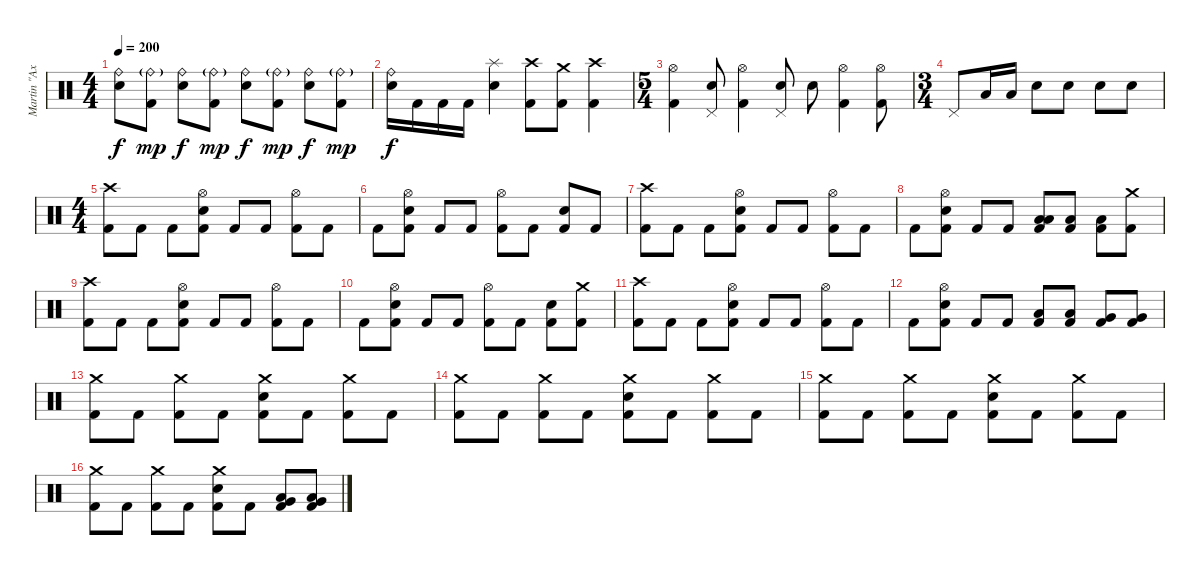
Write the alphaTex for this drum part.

\track ("Martin \"Axe\" Axenrot" "Martin \"Ax") {instrument percussion}
\staff {score}
\articulation defaults
\ts (4 4)
\tempo 200
\clef neutral
\ks c
("Ride (bell)" "Electric Snare (hit)").8{dy f} ("Ride (bell)"{g} "Kick (hit) 2").8{dy mp} ("Ride (bell)" "Electric Snare (hit)").8{dy f} ("Ride (bell)"{g} "Kick (hit) 2").8{dy mp} ("Ride (bell)" "Electric Snare (hit)").8{dy f} ("Ride (bell)"{g} "Kick (hit) 2").8{dy mp} ("Ride (bell)" "Electric Snare (hit)").8{dy f} ("Ride (bell)"{g} "Kick (hit) 2").8{dy mp} |
("Ride (bell)" "Electric Snare (hit)").16{dy f} "Kick (hit) 2".16 "Kick (hit) 2".16 "Kick (hit) 2".16 ("Splash (hit)" "Electric Snare (hit)").4 ("Crash high (hit)" "Kick (hit) 2").8 ("Crash medium (hit)" "Kick (hit) 2").8 ("Crash high (hit)" "Kick (hit) 2").4 |
\ts (5 4)
("Hi-Hat (open)" "Kick (hit) 2").4 ("Pedal Hi-Hat (hit)" "Electric Snare (hit)").8 ("Hi-Hat (open)" "Kick (hit) 2").4 ("Pedal Hi-Hat (hit)" "Electric Snare (hit)").8 "Electric Snare (hit)".8 ("Hi-Hat (open)" "Kick (hit) 2").4 ("Hi-Hat (open)" "Kick (hit) 2").8 |
\ts (3 4)
"Pedal Hi-Hat (hit)".8 "Low Tom (hit)".16 "Low Tom (hit)".16 "Electric Snare (hit)".8 "Electric Snare (hit)".8 "Electric Snare (hit)".8 "Electric Snare (hit)".8 |
\ts (4 4)
("Crash high (hit)" "Kick (hit) 2").8 "Kick (hit) 2".8 "Kick (hit) 2".8 ("Hi-Hat (open)" "Electric Snare (hit)" "Kick (hit) 2").8 "Kick (hit) 2".8 "Kick (hit) 2".8 ("Hi-Hat (open)" "Kick (hit) 2").8 "Kick (hit) 2".8 |
"Kick (hit) 2".8 ("Hi-Hat (open)" "Electric Snare (hit)" "Kick (hit) 2").8 "Kick (hit) 2".8 "Kick (hit) 2".8 ("Hi-Hat (open)" "Kick (hit) 2").8 "Kick (hit) 2".8 ("Electric Snare (hit)" "Kick (hit) 2").8 "Kick (hit) 2".8 |
("Crash high (hit)" "Kick (hit) 2").8 "Kick (hit) 2".8 "Kick (hit) 2".8 ("Hi-Hat (open)" "Electric Snare (hit)" "Kick (hit) 2").8 "Kick (hit) 2".8 "Kick (hit) 2".8 ("Hi-Hat (open)" "Kick (hit) 2").8 "Kick (hit) 2".8 |
"Kick (hit) 2".8 ("Hi-Hat (open)" "Electric Snare (hit)" "Kick (hit) 2").8 "Kick (hit) 2".8 "Kick (hit) 2".8 ("Low Tom (hit)" "Low Floor Tom (hit)" "Kick (hit) 2").8 ("Low Tom (hit)" "Kick (hit) 2").8 ("Low Floor Tom (hit)" "Kick (hit) 2").8 ("Crash medium (hit)" "Kick (hit) 2").8 |
("Crash high (hit)" "Kick (hit) 2").8 "Kick (hit) 2".8 "Kick (hit) 2".8 ("Hi-Hat (open)" "Electric Snare (hit)" "Kick (hit) 2").8 "Kick (hit) 2".8 "Kick (hit) 2".8 ("Hi-Hat (open)" "Kick (hit) 2").8 "Kick (hit) 2".8 |
"Kick (hit) 2".8 ("Hi-Hat (open)" "Electric Snare (hit)" "Kick (hit) 2").8 "Kick (hit) 2".8 "Kick (hit) 2".8 ("Hi-Hat (open)" "Kick (hit) 2").8 "Kick (hit) 2".8 ("Electric Snare (hit)" "Kick (hit) 2").8 ("Crash medium (hit)" "Kick (hit) 2").8 |
("Crash high (hit)" "Kick (hit) 2").8 "Kick (hit) 2".8 "Kick (hit) 2".8 ("Hi-Hat (open)" "Electric Snare (hit)" "Kick (hit) 2").8 "Kick (hit) 2".8 "Kick (hit) 2".8 ("Hi-Hat (open)" "Kick (hit) 2").8 "Kick (hit) 2".8 |
"Kick (hit) 2".8 ("Hi-Hat (open)" "Electric Snare (hit)" "Kick (hit) 2").8 "Kick (hit) 2".8 "Kick (hit) 2".8 ("Low Tom (hit)" "Kick (hit) 2").8 ("Low Tom (hit)" "Kick (hit) 2").8 ("Very Low Tom (hit)" "Kick (hit) 2").8 ("Very Low Tom (hit)" "Kick (hit) 2").8 |
("Crash medium (hit)" "Kick (hit) 2").8 "Kick (hit) 2".8 ("Crash medium (hit)" "Kick (hit) 2").8 "Kick (hit) 2".8 ("Crash medium (hit)" "Electric Snare (hit)" "Kick (hit) 2").8 "Kick (hit) 2".8 ("Crash medium (hit)" "Kick (hit) 2").8 "Kick (hit) 2".8 |
("Crash medium (hit)" "Kick (hit) 2").8 "Kick (hit) 2".8 ("Crash medium (hit)" "Kick (hit) 2").8 "Kick (hit) 2".8 ("Crash medium (hit)" "Electric Snare (hit)" "Kick (hit) 2").8 "Kick (hit) 2".8 ("Crash medium (hit)" "Kick (hit) 2").8 "Kick (hit) 2".8 |
("Crash medium (hit)" "Kick (hit) 2").8 "Kick (hit) 2".8 ("Crash medium (hit)" "Kick (hit) 2").8 "Kick (hit) 2".8 ("Crash medium (hit)" "Electric Snare (hit)" "Kick (hit) 2").8 "Kick (hit) 2".8 ("Crash medium (hit)" "Kick (hit) 2").8 "Kick (hit) 2".8 |
("Crash medium (hit)" "Kick (hit) 2").8 "Kick (hit) 2".8 ("Crash medium (hit)" "Kick (hit) 2").8 "Kick (hit) 2".8 ("Crash medium (hit)" "Electric Snare (hit)" "Kick (hit) 2").8 "Kick (hit) 2".8 ("Very Low Tom (hit)" "Low Floor Tom (hit)" "Kick (hit) 2").8 ("Very Low Tom (hit)" "Low Floor Tom (hit)" "Kick (hit) 2").8
